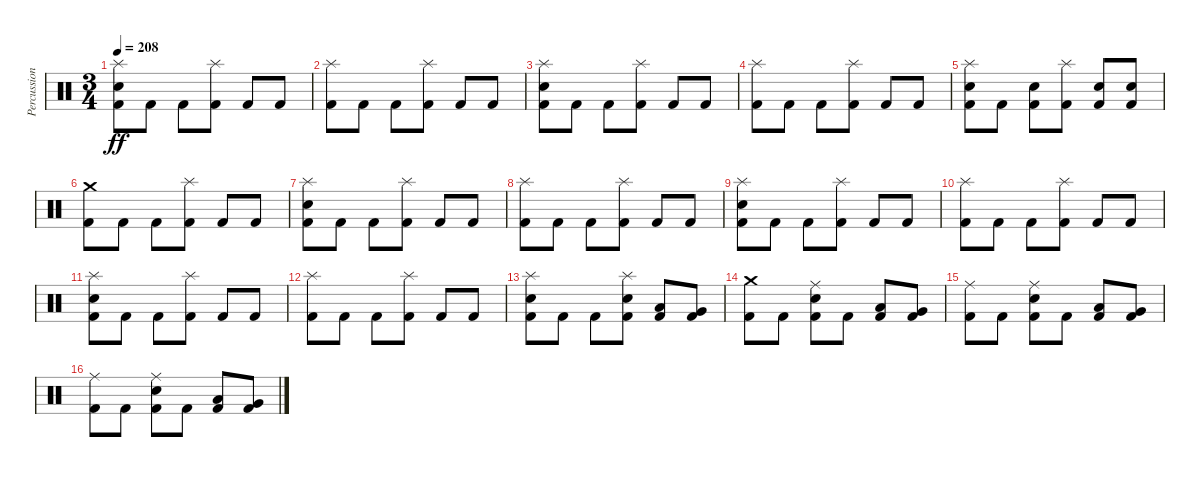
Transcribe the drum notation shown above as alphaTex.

\track ("Percussion" "Percussion") {instrument percussion}
\staff {score}
\articulation defaults
\ts (3 4)
\tempo 208
\clef neutral
\ks c
("Splash (hit)" "Electric Snare (hit)" "Kick (hit) 2").8{dy ff} "Kick (hit) 2".8 "Kick (hit) 2".8 ("Splash (hit)" "Kick (hit) 2").8 "Kick (hit) 2".8 "Kick (hit) 2".8 |
("Splash (hit)" "Kick (hit) 2").8 "Kick (hit) 2".8 "Kick (hit) 2".8 ("Splash (hit)" "Kick (hit) 2").8 "Kick (hit) 2".8 "Kick (hit) 2".8 |
("Splash (hit)" "Electric Snare (hit)" "Kick (hit) 2").8 "Kick (hit) 2".8 "Kick (hit) 2".8 ("Splash (hit)" "Kick (hit) 2").8 "Kick (hit) 2".8 "Kick (hit) 2".8 |
("Splash (hit)" "Kick (hit) 2").8 "Kick (hit) 2".8 "Kick (hit) 2".8 ("Splash (hit)" "Kick (hit) 2").8 "Kick (hit) 2".8 "Kick (hit) 2".8 |
("Splash (hit)" "Electric Snare (hit)" "Kick (hit) 2").8 "Kick (hit) 2".8 ("Electric Snare (hit)" "Kick (hit) 2").8 ("Splash (hit)" "Kick (hit) 2").8 ("Electric Snare (hit)" "Kick (hit) 2").8 ("Electric Snare (hit)" "Kick (hit) 2").8 |
("Crash medium (hit)" "Kick (hit) 2").8 "Kick (hit) 2".8 "Kick (hit) 2".8 ("Splash (hit)" "Kick (hit) 2").8 "Kick (hit) 2".8 "Kick (hit) 2".8 |
("Splash (hit)" "Electric Snare (hit)" "Kick (hit) 2").8 "Kick (hit) 2".8 "Kick (hit) 2".8 ("Splash (hit)" "Kick (hit) 2").8 "Kick (hit) 2".8 "Kick (hit) 2".8 |
("Splash (hit)" "Kick (hit) 2").8 "Kick (hit) 2".8 "Kick (hit) 2".8 ("Splash (hit)" "Kick (hit) 2").8 "Kick (hit) 2".8 "Kick (hit) 2".8 |
("Splash (hit)" "Electric Snare (hit)" "Kick (hit) 2").8 "Kick (hit) 2".8 "Kick (hit) 2".8 ("Splash (hit)" "Kick (hit) 2").8 "Kick (hit) 2".8 "Kick (hit) 2".8 |
("Splash (hit)" "Kick (hit) 2").8 "Kick (hit) 2".8 "Kick (hit) 2".8 ("Splash (hit)" "Kick (hit) 2").8 "Kick (hit) 2".8 "Kick (hit) 2".8 |
("Splash (hit)" "Electric Snare (hit)" "Kick (hit) 2").8 "Kick (hit) 2".8 "Kick (hit) 2".8 ("Splash (hit)" "Kick (hit) 2").8 "Kick (hit) 2".8 "Kick (hit) 2".8 |
("Splash (hit)" "Kick (hit) 2").8 "Kick (hit) 2".8 "Kick (hit) 2".8 ("Splash (hit)" "Kick (hit) 2").8 "Kick (hit) 2".8 "Kick (hit) 2".8 |
("Splash (hit)" "Electric Snare (hit)" "Kick (hit) 2").8 "Kick (hit) 2".8 "Kick (hit) 2".8 ("Splash (hit)" "Electric Snare (hit)" "Kick (hit) 2").8 ("Low Tom (hit)" "Kick (hit) 2").8 ("Very Low Tom (hit)" "Kick (hit) 2").8 |
("Crash medium (hit)" "Kick (hit) 2").8 "Kick (hit) 2".8 ("Ride (middle)" "Electric Snare (hit)" "Kick (hit) 2").8 "Kick (hit) 2".8 ("Low Tom (hit)" "Kick (hit) 2").8 ("Very Low Tom (hit)" "Kick (hit) 2").8 |
("Ride (middle)" "Kick (hit) 2").8 "Kick (hit) 2".8 ("Ride (middle)" "Electric Snare (hit)" "Kick (hit) 2").8 "Kick (hit) 2".8 ("Low Tom (hit)" "Kick (hit) 2").8 ("Very Low Tom (hit)" "Kick (hit) 2").8 |
("Ride (middle)" "Kick (hit) 2").8 "Kick (hit) 2".8 ("Ride (middle)" "Electric Snare (hit)" "Kick (hit) 2").8 "Kick (hit) 2".8 ("Low Tom (hit)" "Kick (hit) 2").8 ("Very Low Tom (hit)" "Kick (hit) 2").8
